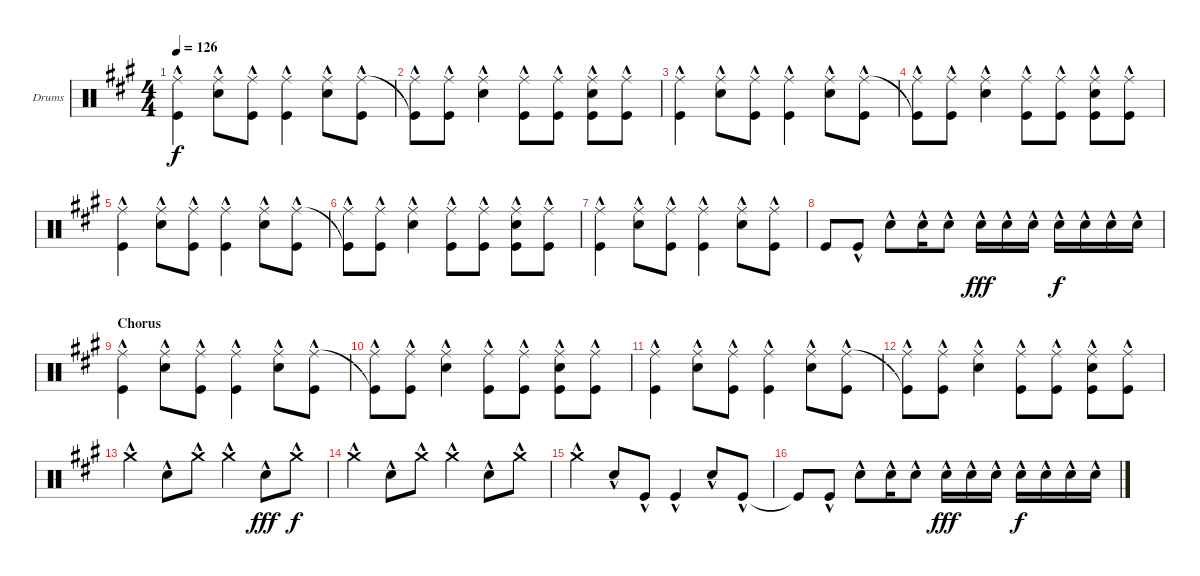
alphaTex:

\defaultSystemsLayout 4
\bracketExtendMode groupsimilarinstruments
\firstSystemTrackNameOrientation horizontal
\otherSystemsTrackNameOrientation horizontal
\track ("Drumkit" "Drums") {instrument percussion}
\staff {score}
\articulation defaults
\ts (4 4)
\tempo 126
\clef neutral
\scale
1.05801
\ks a
("Kick (hit)"{hac} "Ride (middle)"{hac}).4{dy f} ("Snare (hit) 2"{hac} "Ride (middle)"{hac}).8 ("Kick (hit)"{hac} "Ride (middle)"{hac}).8 ("Kick (hit)"{hac} "Ride (middle)"{hac}).4 ("Snare (hit) 2"{hac} "Ride (middle)"{hac}).8 ("Kick (hit)"{hac} "Ride (middle)"{hac}).8 |
\scale
0.941992 ("Ride (middle)"{hac} "Kick (hit)"{t}).8 ("Kick (hit)"{hac} "Ride (middle)"{hac}).8 ("Snare (hit) 2"{hac} "Ride (middle)"{hac}).4 ("Ride (middle)"{hac} "Kick (hit)"{hac}).8 ("Kick (hit)"{hac} "Ride (middle)"{hac}).8 ("Kick (hit)"{hac} "Snare (hit) 2"{hac} "Ride (middle)"{hac}).8 ("Kick (hit)"{hac} "Ride (middle)"{hac}).8 |
\scale
1.05801 ("Kick (hit)"{hac} "Ride (middle)"{hac}).4 ("Snare (hit) 2"{hac} "Ride (middle)"{hac}).8 ("Kick (hit)"{hac} "Ride (middle)"{hac}).8 ("Kick (hit)"{hac} "Ride (middle)"{hac}).4 ("Snare (hit) 2"{hac} "Ride (middle)"{hac}).8 ("Kick (hit)"{hac} "Ride (middle)"{hac}).8 |
\scale
0.941992 ("Ride (middle)"{hac} "Kick (hit)"{t}).8 ("Kick (hit)"{hac} "Ride (middle)"{hac}).8 ("Snare (hit) 2"{hac} "Ride (middle)"{hac}).4 ("Ride (middle)"{hac} "Kick (hit)"{hac}).8 ("Kick (hit)"{hac} "Ride (middle)"{hac}).8 ("Kick (hit)"{hac} "Snare (hit) 2"{hac} "Ride (middle)"{hac}).8 ("Kick (hit)"{hac} "Ride (middle)"{hac}).8 |
\scale
1.05801 ("Kick (hit)"{hac} "Ride (middle)"{hac}).4 ("Snare (hit) 2"{hac} "Ride (middle)"{hac}).8 ("Kick (hit)"{hac} "Ride (middle)"{hac}).8 ("Kick (hit)"{hac} "Ride (middle)"{hac}).4 ("Snare (hit) 2"{hac} "Ride (middle)"{hac}).8 ("Kick (hit)"{hac} "Ride (middle)"{hac}).8 |
\scale
0.941992 ("Ride (middle)"{hac} "Kick (hit)"{t}).8 ("Kick (hit)"{hac} "Ride (middle)"{hac}).8 ("Snare (hit) 2"{hac} "Ride (middle)"{hac}).4 ("Ride (middle)"{hac} "Kick (hit)"{hac}).8 ("Kick (hit)"{hac} "Ride (middle)"{hac}).8 ("Kick (hit)"{hac} "Snare (hit) 2"{hac} "Ride (middle)"{hac}).8 ("Kick (hit)"{hac} "Ride (middle)"{hac}).8 |
\scale
1.05801 ("Kick (hit)"{hac} "Ride (middle)"{hac}).4 ("Snare (hit) 2"{hac} "Ride (middle)"{hac}).8 ("Kick (hit)"{hac} "Ride (middle)"{hac}).8 ("Kick (hit)"{hac} "Ride (middle)"{hac}).4 ("Snare (hit) 2"{hac} "Ride (middle)"{hac}).8 ("Kick (hit)"{hac} "Ride (middle)"{hac}).8 |
\scale
0.941992 "Kick (hit)".8 "Kick (hit)"{hac}.8 "Snare (hit) 2"{hac}.8 "Snare (hit) 2"{hac}.16 "Snare (hit) 2"{hac}.8 "Snare (hit) 2"{hac}.16{dy fff} "Snare (hit) 2"{hac}.16 "Snare (hit) 2"{hac}.16 "Snare (hit) 2"{hac}.16{dy f} "Snare (hit) 2"{hac}.16 "Snare (hit) 2"{hac}.16 "Snare (hit) 2"{hac}.16 |
\section ("" "Chorus")
\scale
1.05801 ("Kick (hit)"{hac} "Ride (middle)"{hac}).4 ("Snare (hit) 2"{hac} "Ride (middle)"{hac}).8 ("Kick (hit)"{hac} "Ride (middle)"{hac}).8 ("Kick (hit)"{hac} "Ride (middle)"{hac}).4 ("Snare (hit) 2"{hac} "Ride (middle)"{hac}).8 ("Kick (hit)"{hac} "Ride (middle)"{hac}).8 |
\scale
0.941992 ("Ride (middle)"{hac} "Kick (hit)"{t}).8 ("Kick (hit)"{hac} "Ride (middle)"{hac}).8 ("Snare (hit) 2"{hac} "Ride (middle)"{hac}).4 ("Ride (middle)"{hac} "Kick (hit)"{hac}).8 ("Kick (hit)"{hac} "Ride (middle)"{hac}).8 ("Kick (hit)"{hac} "Snare (hit) 2"{hac} "Ride (middle)"{hac}).8 ("Kick (hit)"{hac} "Ride (middle)"{hac}).8 |
\scale
1.05801 ("Kick (hit)"{hac} "Ride (middle)"{hac}).4 ("Snare (hit) 2"{hac} "Ride (middle)"{hac}).8 ("Kick (hit)"{hac} "Ride (middle)"{hac}).8 ("Kick (hit)"{hac} "Ride (middle)"{hac}).4 ("Snare (hit) 2"{hac} "Ride (middle)"{hac}).8 ("Kick (hit)"{hac} "Ride (middle)"{hac}).8 |
\scale
0.941992 ("Ride (middle)"{hac} "Kick (hit)"{t}).8 ("Kick (hit)"{hac} "Ride (middle)"{hac}).8 ("Snare (hit) 2"{hac} "Ride (middle)"{hac}).4 ("Ride (middle)"{hac} "Kick (hit)"{hac}).8 ("Kick (hit)"{hac} "Ride (middle)"{hac}).8 ("Kick (hit)"{hac} "Snare (hit) 2"{hac} "Ride (middle)"{hac}).8 ("Kick (hit)"{hac} "Ride (middle)"{hac}).8 |
\scale
1.05801 "Crash medium (hit)"{hac}.4 "Snare (hit) 2"{hac}.8 "Crash medium (hit)"{hac}.8 "Crash medium (hit)"{hac}.4 "Snare (hit) 2"{hac}.8{dy fff} "Crash medium (hit)"{hac}.8{dy f} |
\scale
0.941992 "Crash medium (hit)"{hac}.4 "Snare (hit) 2"{hac}.8 "Crash medium (hit)"{hac}.8 "Crash medium (hit)"{hac}.4 "Snare (hit) 2"{hac}.8 "Crash medium (hit)"{hac}.8 |
\scale
1.05801 "Crash medium (hit)"{hac}.4 "Snare (hit) 2"{hac}.8 "Kick (hit)"{hac}.8 "Kick (hit)"{hac}.4 "Snare (hit) 2"{hac}.8 "Kick (hit)"{hac}.8 |
\scale
0.941992 "Kick (hit)"{t}.8 "Kick (hit)"{hac}.8 "Snare (hit) 2"{hac}.8 "Snare (hit) 2"{hac}.16 "Snare (hit) 2"{hac}.8 "Snare (hit) 2"{hac}.16{dy fff} "Snare (hit) 2"{hac}.16 "Snare (hit) 2"{hac}.16 "Snare (hit) 2"{hac}.16{dy f} "Snare (hit) 2"{hac}.16 "Snare (hit) 2"{hac}.16 "Snare (hit) 2"{hac}.16
